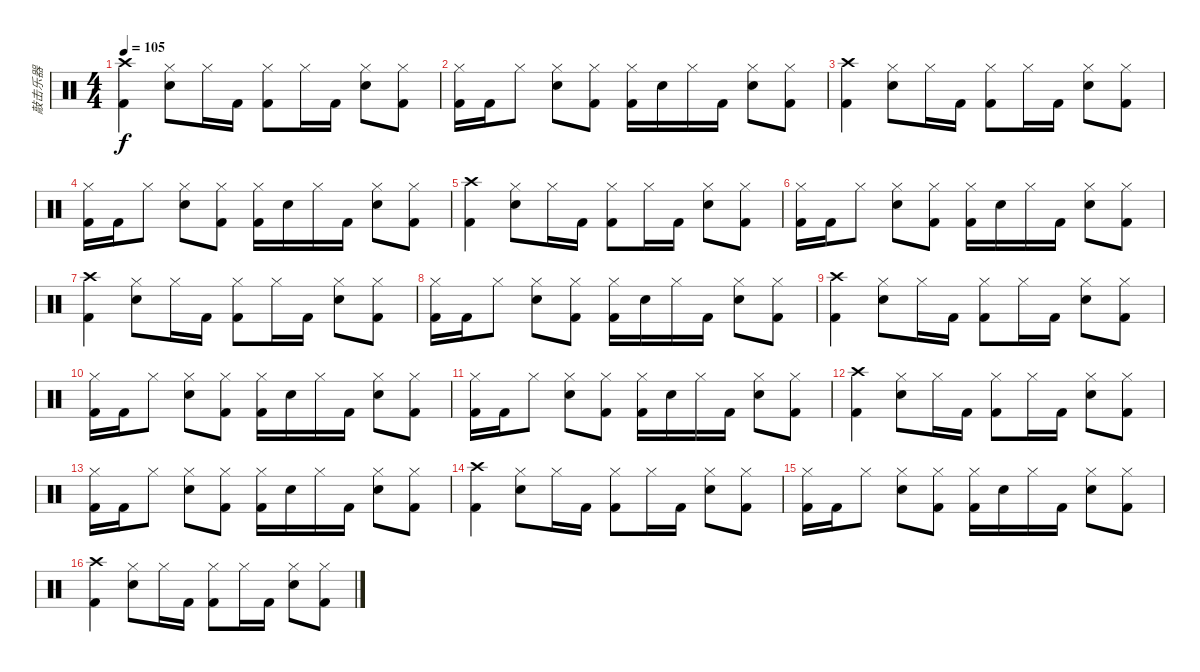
\track ("敲击乐器" "敲击乐器") {instrument percussion}
\staff {score}
\articulation defaults
\ts (4 4)
\tempo 105
\clef neutral
\ks c
("Crash high (hit)" "Kick (hit) 2").4{dy f} ("Hi-Hat (closed)" "Snare (hit) 2").8 "Hi-Hat (closed)".16 "Kick (hit) 2".16 ("Hi-Hat (closed)" "Kick (hit) 2").8 "Hi-Hat (closed)".16 "Kick (hit) 2".16 ("Hi-Hat (closed)" "Snare (hit) 2").8 ("Hi-Hat (closed)" "Kick (hit) 2").8 |
("Hi-Hat (closed)" "Kick (hit) 2").16 "Kick (hit) 2".16 "Hi-Hat (closed)".8 ("Hi-Hat (closed)" "Snare (hit) 2").8 ("Hi-Hat (closed)" "Kick (hit) 2").8 ("Hi-Hat (closed)" "Kick (hit) 2").16 "Snare (hit) 2".16 "Hi-Hat (closed)".16 "Kick (hit) 2".16 ("Hi-Hat (closed)" "Snare (hit) 2").8 ("Hi-Hat (closed)" "Kick (hit) 2").8 |
("Crash high (hit)" "Kick (hit) 2").4 ("Hi-Hat (closed)" "Snare (hit) 2").8 "Hi-Hat (closed)".16 "Kick (hit) 2".16 ("Hi-Hat (closed)" "Kick (hit) 2").8 "Hi-Hat (closed)".16 "Kick (hit) 2".16 ("Hi-Hat (closed)" "Snare (hit) 2").8 ("Hi-Hat (closed)" "Kick (hit) 2").8 |
("Hi-Hat (closed)" "Kick (hit) 2").16 "Kick (hit) 2".16 "Hi-Hat (closed)".8 ("Hi-Hat (closed)" "Snare (hit) 2").8 ("Hi-Hat (closed)" "Kick (hit) 2").8 ("Hi-Hat (closed)" "Kick (hit) 2").16 "Snare (hit) 2".16 "Hi-Hat (closed)".16 "Kick (hit) 2".16 ("Hi-Hat (closed)" "Snare (hit) 2").8 ("Hi-Hat (closed)" "Kick (hit) 2").8 |
("Crash high (hit)" "Kick (hit) 2").4 ("Hi-Hat (closed)" "Snare (hit) 2").8 "Hi-Hat (closed)".16 "Kick (hit) 2".16 ("Hi-Hat (closed)" "Kick (hit) 2").8 "Hi-Hat (closed)".16 "Kick (hit) 2".16 ("Hi-Hat (closed)" "Snare (hit) 2").8 ("Hi-Hat (closed)" "Kick (hit) 2").8 |
("Hi-Hat (closed)" "Kick (hit) 2").16 "Kick (hit) 2".16 "Hi-Hat (closed)".8 ("Hi-Hat (closed)" "Snare (hit) 2").8 ("Hi-Hat (closed)" "Kick (hit) 2").8 ("Hi-Hat (closed)" "Kick (hit) 2").16 "Snare (hit) 2".16 "Hi-Hat (closed)".16 "Kick (hit) 2".16 ("Hi-Hat (closed)" "Snare (hit) 2").8 ("Hi-Hat (closed)" "Kick (hit) 2").8 |
("Crash high (hit)" "Kick (hit) 2").4 ("Hi-Hat (closed)" "Snare (hit) 2").8 "Hi-Hat (closed)".16 "Kick (hit) 2".16 ("Hi-Hat (closed)" "Kick (hit) 2").8 "Hi-Hat (closed)".16 "Kick (hit) 2".16 ("Hi-Hat (closed)" "Snare (hit) 2").8 ("Hi-Hat (closed)" "Kick (hit) 2").8 |
("Hi-Hat (closed)" "Kick (hit) 2").16 "Kick (hit) 2".16 "Hi-Hat (closed)".8 ("Hi-Hat (closed)" "Snare (hit) 2").8 ("Hi-Hat (closed)" "Kick (hit) 2").8 ("Hi-Hat (closed)" "Kick (hit) 2").16 "Snare (hit) 2".16 "Hi-Hat (closed)".16 "Kick (hit) 2".16 ("Hi-Hat (closed)" "Snare (hit) 2").8 ("Hi-Hat (closed)" "Kick (hit) 2").8 |
("Crash high (hit)" "Kick (hit) 2").4 ("Hi-Hat (closed)" "Snare (hit) 2").8 "Hi-Hat (closed)".16 "Kick (hit) 2".16 ("Hi-Hat (closed)" "Kick (hit) 2").8 "Hi-Hat (closed)".16 "Kick (hit) 2".16 ("Hi-Hat (closed)" "Snare (hit) 2").8 ("Hi-Hat (closed)" "Kick (hit) 2").8 |
("Hi-Hat (closed)" "Kick (hit) 2").16 "Kick (hit) 2".16 "Hi-Hat (closed)".8 ("Hi-Hat (closed)" "Snare (hit) 2").8 ("Hi-Hat (closed)" "Kick (hit) 2").8 ("Hi-Hat (closed)" "Kick (hit) 2").16 "Snare (hit) 2".16 "Hi-Hat (closed)".16 "Kick (hit) 2".16 ("Hi-Hat (closed)" "Snare (hit) 2").8 ("Hi-Hat (closed)" "Kick (hit) 2").8 |
("Hi-Hat (closed)" "Kick (hit) 2").16 "Kick (hit) 2".16 "Hi-Hat (closed)".8 ("Hi-Hat (closed)" "Snare (hit) 2").8 ("Hi-Hat (closed)" "Kick (hit) 2").8 ("Hi-Hat (closed)" "Kick (hit) 2").16 "Snare (hit) 2".16 "Hi-Hat (closed)".16 "Kick (hit) 2".16 ("Hi-Hat (closed)" "Snare (hit) 2").8 ("Hi-Hat (closed)" "Kick (hit) 2").8 |
("Crash high (hit)" "Kick (hit) 2").4 ("Hi-Hat (closed)" "Snare (hit) 2").8 "Hi-Hat (closed)".16 "Kick (hit) 2".16 ("Hi-Hat (closed)" "Kick (hit) 2").8 "Hi-Hat (closed)".16 "Kick (hit) 2".16 ("Hi-Hat (closed)" "Snare (hit) 2").8 ("Hi-Hat (closed)" "Kick (hit) 2").8 |
("Hi-Hat (closed)" "Kick (hit) 2").16 "Kick (hit) 2".16 "Hi-Hat (closed)".8 ("Hi-Hat (closed)" "Snare (hit) 2").8 ("Hi-Hat (closed)" "Kick (hit) 2").8 ("Hi-Hat (closed)" "Kick (hit) 2").16 "Snare (hit) 2".16 "Hi-Hat (closed)".16 "Kick (hit) 2".16 ("Hi-Hat (closed)" "Snare (hit) 2").8 ("Hi-Hat (closed)" "Kick (hit) 2").8 |
("Crash high (hit)" "Kick (hit) 2").4 ("Hi-Hat (closed)" "Snare (hit) 2").8 "Hi-Hat (closed)".16 "Kick (hit) 2".16 ("Hi-Hat (closed)" "Kick (hit) 2").8 "Hi-Hat (closed)".16 "Kick (hit) 2".16 ("Hi-Hat (closed)" "Snare (hit) 2").8 ("Hi-Hat (closed)" "Kick (hit) 2").8 |
("Hi-Hat (closed)" "Kick (hit) 2").16 "Kick (hit) 2".16 "Hi-Hat (closed)".8 ("Hi-Hat (closed)" "Snare (hit) 2").8 ("Hi-Hat (closed)" "Kick (hit) 2").8 ("Hi-Hat (closed)" "Kick (hit) 2").16 "Snare (hit) 2".16 "Hi-Hat (closed)".16 "Kick (hit) 2".16 ("Hi-Hat (closed)" "Snare (hit) 2").8 ("Hi-Hat (closed)" "Kick (hit) 2").8 |
("Crash high (hit)" "Kick (hit) 2").4 ("Hi-Hat (closed)" "Snare (hit) 2").8 "Hi-Hat (closed)".16 "Kick (hit) 2".16 ("Hi-Hat (closed)" "Kick (hit) 2").8 "Hi-Hat (closed)".16 "Kick (hit) 2".16 ("Hi-Hat (closed)" "Snare (hit) 2").8 ("Hi-Hat (closed)" "Kick (hit) 2").8
